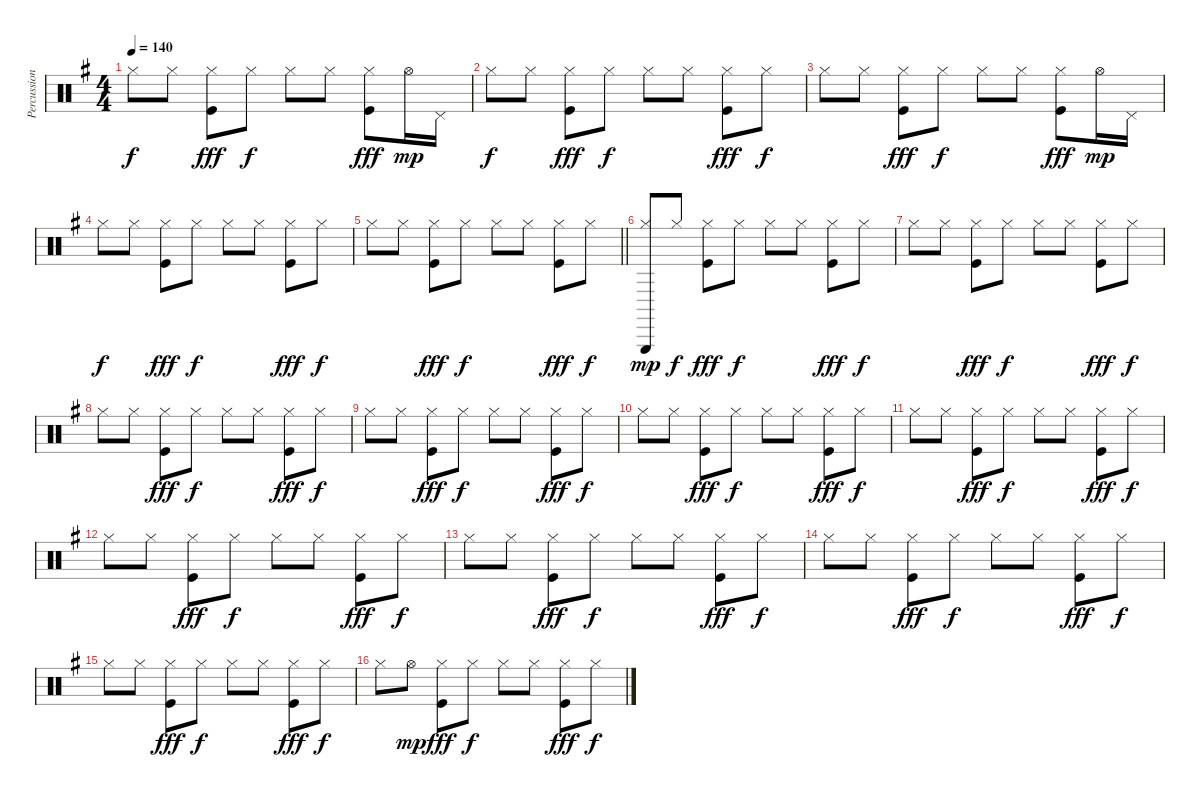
\track ("Percussioni" "Percussion") {instrument percussion}
\staff {score}
\articulation defaults
\ts (4 4)
\tempo 140
\clef neutral
\ks eminor "Hi-Hat (closed)".8{dy f} "Hi-Hat (closed)".8
("Hi-Hat (closed)" "Kick (hit)").8{dy fff} "Hi-Hat (closed)".8{dy f} "Hi-Hat (closed)".8 "Hi-Hat (closed)".8 ("Hi-Hat (closed)" "Kick (hit)").8{dy fff} "Hi-Hat (open)".16{dy mp} "Pedal Hi-Hat (hit)".16 |
"Hi-Hat (closed)".8{dy f} "Hi-Hat (closed)".8 ("Hi-Hat (closed)" "Kick (hit)").8{dy fff} "Hi-Hat (closed)".8{dy f} "Hi-Hat (closed)".8 "Hi-Hat (closed)".8 ("Hi-Hat (closed)" "Kick (hit)").8{dy fff} "Hi-Hat (closed)".8{dy f} |
"Hi-Hat (closed)".8 "Hi-Hat (closed)".8 ("Hi-Hat (closed)" "Kick (hit)").8{dy fff} "Hi-Hat (closed)".8{dy f} "Hi-Hat (closed)".8 "Hi-Hat (closed)".8 ("Hi-Hat (closed)" "Kick (hit)").8{dy fff} "Hi-Hat (open)".16{dy mp} "Pedal Hi-Hat (hit)".16 |
"Hi-Hat (closed)".8{dy f} "Hi-Hat (closed)".8 ("Hi-Hat (closed)" "Kick (hit)").8{dy fff} "Hi-Hat (closed)".8{dy f} "Hi-Hat (closed)".8 "Hi-Hat (closed)".8 ("Hi-Hat (closed)" "Kick (hit)").8{dy fff} "Hi-Hat (closed)".8{dy f} |
\barLineRight lightlight "Hi-Hat (closed)".8 "Hi-Hat (closed)".8
("Hi-Hat (closed)" "Kick (hit)").8{dy fff} "Hi-Hat (closed)".8{dy f} "Hi-Hat (closed)".8 "Hi-Hat (closed)".8 ("Hi-Hat (closed)" "Kick (hit)").8{dy fff} "Hi-Hat (closed)".8{dy f} |
\section ("" "")
("Hi-Hat (closed)" "Triangle (hit)").8{dy mp} "Hi-Hat (closed)".8{dy f} ("Hi-Hat (closed)" "Kick (hit)").8{dy fff} "Hi-Hat (closed)".8{dy f} "Hi-Hat (closed)".8 "Hi-Hat (closed)".8 ("Hi-Hat (closed)" "Kick (hit)").8{dy fff} "Hi-Hat (closed)".8{dy f} |
"Hi-Hat (closed)".8 "Hi-Hat (closed)".8 ("Hi-Hat (closed)" "Kick (hit)").8{dy fff} "Hi-Hat (closed)".8{dy f} "Hi-Hat (closed)".8 "Hi-Hat (closed)".8 ("Hi-Hat (closed)" "Kick (hit)").8{dy fff} "Hi-Hat (closed)".8{dy f} |
"Hi-Hat (closed)".8 "Hi-Hat (closed)".8 ("Hi-Hat (closed)" "Kick (hit)").8{dy fff} "Hi-Hat (closed)".8{dy f} "Hi-Hat (closed)".8 "Hi-Hat (closed)".8 ("Hi-Hat (closed)" "Kick (hit)").8{dy fff} "Hi-Hat (closed)".8{dy f} |
"Hi-Hat (closed)".8 "Hi-Hat (closed)".8 ("Hi-Hat (closed)" "Kick (hit)").8{dy fff} "Hi-Hat (closed)".8{dy f} "Hi-Hat (closed)".8 "Hi-Hat (closed)".8 ("Hi-Hat (closed)" "Kick (hit)").8{dy fff} "Hi-Hat (closed)".8{dy f} |
"Hi-Hat (closed)".8 "Hi-Hat (closed)".8 ("Hi-Hat (closed)" "Kick (hit)").8{dy fff} "Hi-Hat (closed)".8{dy f} "Hi-Hat (closed)".8 "Hi-Hat (closed)".8 ("Hi-Hat (closed)" "Kick (hit)").8{dy fff} "Hi-Hat (closed)".8{dy f} |
"Hi-Hat (closed)".8 "Hi-Hat (closed)".8 ("Hi-Hat (closed)" "Kick (hit)").8{dy fff} "Hi-Hat (closed)".8{dy f} "Hi-Hat (closed)".8 "Hi-Hat (closed)".8 ("Hi-Hat (closed)" "Kick (hit)").8{dy fff} "Hi-Hat (closed)".8{dy f} |
"Hi-Hat (closed)".8 "Hi-Hat (closed)".8 ("Hi-Hat (closed)" "Kick (hit)").8{dy fff} "Hi-Hat (closed)".8{dy f} "Hi-Hat (closed)".8 "Hi-Hat (closed)".8 ("Hi-Hat (closed)" "Kick (hit)").8{dy fff} "Hi-Hat (closed)".8{dy f} |
"Hi-Hat (closed)".8 "Hi-Hat (closed)".8 ("Hi-Hat (closed)" "Kick (hit)").8{dy fff} "Hi-Hat (closed)".8{dy f} "Hi-Hat (closed)".8 "Hi-Hat (closed)".8 ("Hi-Hat (closed)" "Kick (hit)").8{dy fff} "Hi-Hat (closed)".8{dy f} |
"Hi-Hat (closed)".8 "Hi-Hat (closed)".8 ("Hi-Hat (closed)" "Kick (hit)").8{dy fff} "Hi-Hat (closed)".8{dy f} "Hi-Hat (closed)".8 "Hi-Hat (closed)".8 ("Hi-Hat (closed)" "Kick (hit)").8{dy fff} "Hi-Hat (closed)".8{dy f} |
"Hi-Hat (closed)".8 "Hi-Hat (closed)".8 ("Hi-Hat (closed)" "Kick (hit)").8{dy fff} "Hi-Hat (closed)".8{dy f} "Hi-Hat (closed)".8 "Hi-Hat (closed)".8 ("Hi-Hat (closed)" "Kick (hit)").8{dy fff} "Hi-Hat (closed)".8{dy f} |
"Hi-Hat (closed)".8 "Hi-Hat (open)".8{dy mp} ("Hi-Hat (closed)" "Kick (hit)").8{dy fff} "Hi-Hat (closed)".8{dy f} "Hi-Hat (closed)".8 "Hi-Hat (closed)".8 ("Hi-Hat (closed)" "Kick (hit)").8{dy fff} "Hi-Hat (closed)".8{dy f}
